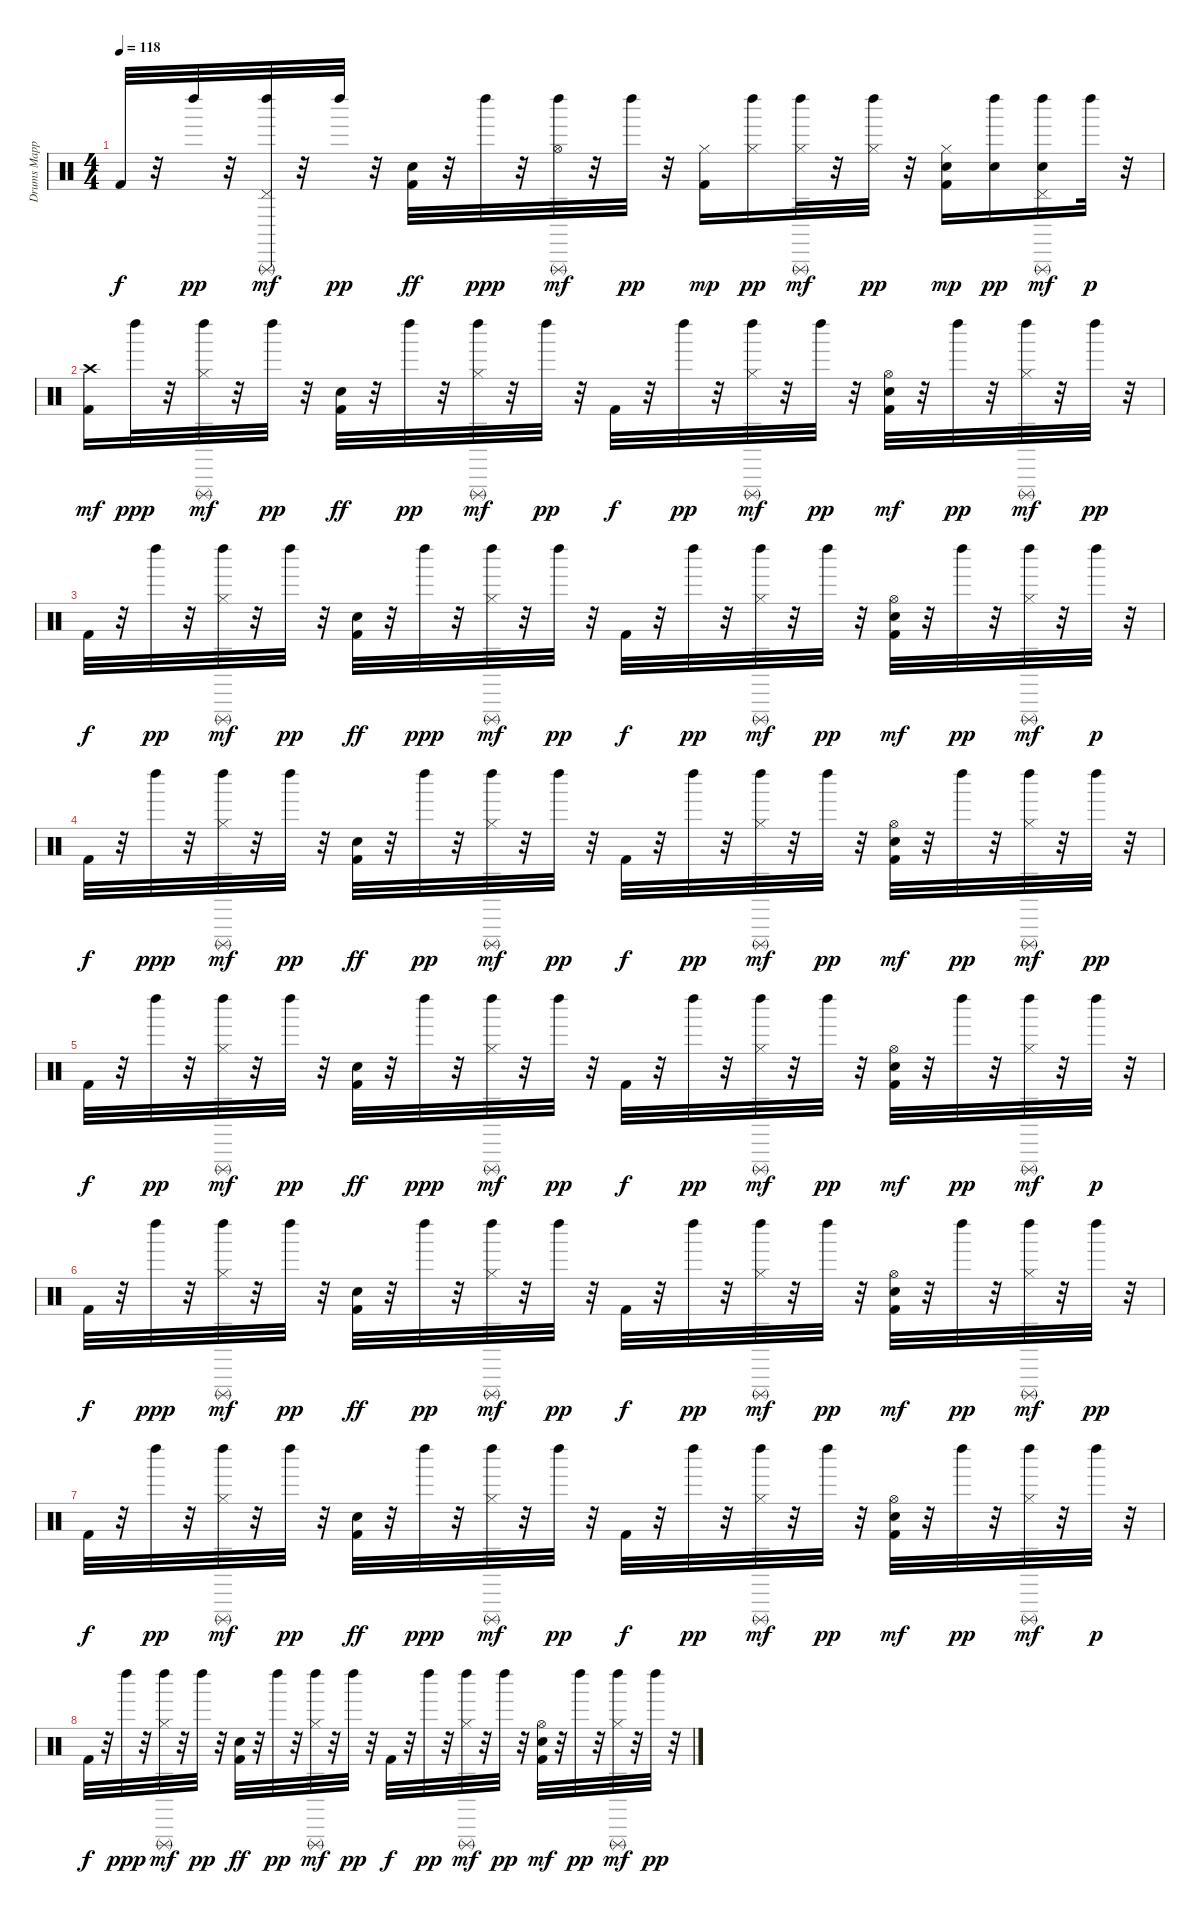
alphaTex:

\track ("Drums Mapped*merged" "Drums Mapp") {instrument percussion}
\staff {score}
\articulation defaults
\ts (4 4)
\tempo 118
\clef neutral
\ks c "Kick (hit) 2".32{dy f}
r.32 "Left Maraca (hit)".32{dy pp} r.32 ("Pedal Hi-Hat (hit)" "Left Maraca (hit)" "Triangle (rnute)").32{dy mf} r.32 "Left Maraca (hit)".32{dy pp} r.32 ("Kick (hit) 2" "Snare (hit) 2").32{dy ff} r.32 "Left Maraca (hit)".32{dy ppp} r.32 ("Hi-Hat (open)" "Left Maraca (hit)" "Triangle (rnute)").32{dy mf} r.32 "Left Maraca (hit)".32{dy pp} r.32 ("Kick (hit) 2" "Hi-Hat (closed)").16{dy mp} ("Hi-Hat (closed)" "Left Maraca (hit)").16{dy pp} ("Hi-Hat (closed)" "Left Maraca (hit)" "Triangle (rnute)").32{dy mf} r.32 ("Hi-Hat (closed)" "Left Maraca (hit)").32{dy pp} r.32 ("Kick (hit) 2" "Snare (hit) 2" "Hi-Hat (closed)").16{dy mp} ("Snare (hit) 2" "Left Maraca (hit)").16{dy pp} ("Snare (hit) 2" "Pedal Hi-Hat (hit)" "Left Maraca (hit)" "Triangle (rnute)").16{dy mf} "Left Maraca (hit)".32{dy p} r.32 |
("Kick (hit) 2" "Crash high (hit)").16{dy mf} "Left Maraca (hit)".32{dy ppp} r.32 ("Hi-Hat (closed)" "Left Maraca (hit)" "Triangle (rnute)").32{dy mf} r.32 "Left Maraca (hit)".32{dy pp} r.32 ("Kick (hit) 2" "Snare (hit) 2").32{dy ff} r.32 "Left Maraca (hit)".32{dy pp} r.32 ("Hi-Hat (closed)" "Left Maraca (hit)" "Triangle (rnute)").32{dy mf} r.32 "Left Maraca (hit)".32{dy pp} r.32 "Kick (hit) 2".32{dy f} r.32 "Left Maraca (hit)".32{dy pp} r.32 ("Hi-Hat (closed)" "Left Maraca (hit)" "Triangle (rnute)").32{dy mf} r.32 "Left Maraca (hit)".32{dy pp} r.32 ("Kick (hit) 2" "Snare (hit) 2" "Hi-Hat (open)").32{dy mf} r.32 "Left Maraca (hit)".32{dy pp} r.32 ("Hi-Hat (closed)" "Left Maraca (hit)" "Triangle (rnute)").32{dy mf} r.32 "Left Maraca (hit)".32{dy pp} r.32 |
"Kick (hit) 2".32{dy f} r.32 "Left Maraca (hit)".32{dy pp} r.32 ("Hi-Hat (closed)" "Left Maraca (hit)" "Triangle (rnute)").32{dy mf} r.32 "Left Maraca (hit)".32{dy pp} r.32 ("Kick (hit) 2" "Snare (hit) 2").32{dy ff} r.32 "Left Maraca (hit)".32{dy ppp} r.32 ("Hi-Hat (closed)" "Left Maraca (hit)" "Triangle (rnute)").32{dy mf} r.32 "Left Maraca (hit)".32{dy pp} r.32 "Kick (hit) 2".32{dy f} r.32 "Left Maraca (hit)".32{dy pp} r.32 ("Hi-Hat (closed)" "Left Maraca (hit)" "Triangle (rnute)").32{dy mf} r.32 "Left Maraca (hit)".32{dy pp} r.32 ("Kick (hit) 2" "Snare (hit) 2" "Hi-Hat (open)").32{dy mf} r.32 "Left Maraca (hit)".32{dy pp} r.32 ("Hi-Hat (closed)" "Left Maraca (hit)" "Triangle (rnute)").32{dy mf} r.32 "Left Maraca (hit)".32{dy p} r.32 |
"Kick (hit) 2".32{dy f} r.32 "Left Maraca (hit)".32{dy ppp} r.32 ("Hi-Hat (closed)" "Left Maraca (hit)" "Triangle (rnute)").32{dy mf} r.32 "Left Maraca (hit)".32{dy pp} r.32 ("Kick (hit) 2" "Snare (hit) 2").32{dy ff} r.32 "Left Maraca (hit)".32{dy pp} r.32 ("Hi-Hat (closed)" "Left Maraca (hit)" "Triangle (rnute)").32{dy mf} r.32 "Left Maraca (hit)".32{dy pp} r.32 "Kick (hit) 2".32{dy f} r.32 "Left Maraca (hit)".32{dy pp} r.32 ("Hi-Hat (closed)" "Left Maraca (hit)" "Triangle (rnute)").32{dy mf} r.32 "Left Maraca (hit)".32{dy pp} r.32 ("Kick (hit) 2" "Snare (hit) 2" "Hi-Hat (open)").32{dy mf} r.32 "Left Maraca (hit)".32{dy pp} r.32 ("Hi-Hat (closed)" "Left Maraca (hit)" "Triangle (rnute)").32{dy mf} r.32 "Left Maraca (hit)".32{dy pp} r.32 |
"Kick (hit) 2".32{dy f} r.32 "Left Maraca (hit)".32{dy pp} r.32 ("Hi-Hat (closed)" "Left Maraca (hit)" "Triangle (rnute)").32{dy mf} r.32 "Left Maraca (hit)".32{dy pp} r.32 ("Kick (hit) 2" "Snare (hit) 2").32{dy ff} r.32 "Left Maraca (hit)".32{dy ppp} r.32 ("Hi-Hat (closed)" "Left Maraca (hit)" "Triangle (rnute)").32{dy mf} r.32 "Left Maraca (hit)".32{dy pp} r.32 "Kick (hit) 2".32{dy f} r.32 "Left Maraca (hit)".32{dy pp} r.32 ("Hi-Hat (closed)" "Left Maraca (hit)" "Triangle (rnute)").32{dy mf} r.32 "Left Maraca (hit)".32{dy pp} r.32 ("Kick (hit) 2" "Snare (hit) 2" "Hi-Hat (open)").32{dy mf} r.32 "Left Maraca (hit)".32{dy pp} r.32 ("Hi-Hat (closed)" "Left Maraca (hit)" "Triangle (rnute)").32{dy mf} r.32 "Left Maraca (hit)".32{dy p} r.32 |
"Kick (hit) 2".32{dy f} r.32 "Left Maraca (hit)".32{dy ppp} r.32 ("Hi-Hat (closed)" "Left Maraca (hit)" "Triangle (rnute)").32{dy mf} r.32 "Left Maraca (hit)".32{dy pp} r.32 ("Kick (hit) 2" "Snare (hit) 2").32{dy ff} r.32 "Left Maraca (hit)".32{dy pp} r.32 ("Hi-Hat (closed)" "Left Maraca (hit)" "Triangle (rnute)").32{dy mf} r.32 "Left Maraca (hit)".32{dy pp} r.32 "Kick (hit) 2".32{dy f} r.32 "Left Maraca (hit)".32{dy pp} r.32 ("Hi-Hat (closed)" "Left Maraca (hit)" "Triangle (rnute)").32{dy mf} r.32 "Left Maraca (hit)".32{dy pp} r.32 ("Kick (hit) 2" "Snare (hit) 2" "Hi-Hat (open)").32{dy mf} r.32 "Left Maraca (hit)".32{dy pp} r.32 ("Hi-Hat (closed)" "Left Maraca (hit)" "Triangle (rnute)").32{dy mf} r.32 "Left Maraca (hit)".32{dy pp} r.32 |
"Kick (hit) 2".32{dy f} r.32 "Left Maraca (hit)".32{dy pp} r.32 ("Hi-Hat (closed)" "Left Maraca (hit)" "Triangle (rnute)").32{dy mf} r.32 "Left Maraca (hit)".32{dy pp} r.32 ("Kick (hit) 2" "Snare (hit) 2").32{dy ff} r.32 "Left Maraca (hit)".32{dy ppp} r.32 ("Hi-Hat (closed)" "Left Maraca (hit)" "Triangle (rnute)").32{dy mf} r.32 "Left Maraca (hit)".32{dy pp} r.32 "Kick (hit) 2".32{dy f} r.32 "Left Maraca (hit)".32{dy pp} r.32 ("Hi-Hat (closed)" "Left Maraca (hit)" "Triangle (rnute)").32{dy mf} r.32 "Left Maraca (hit)".32{dy pp} r.32 ("Kick (hit) 2" "Snare (hit) 2" "Hi-Hat (open)").32{dy mf} r.32 "Left Maraca (hit)".32{dy pp} r.32 ("Hi-Hat (closed)" "Left Maraca (hit)" "Triangle (rnute)").32{dy mf} r.32 "Left Maraca (hit)".32{dy p} r.32 |
"Kick (hit) 2".32{dy f} r.32 "Left Maraca (hit)".32{dy ppp} r.32 ("Hi-Hat (closed)" "Left Maraca (hit)" "Triangle (rnute)").32{dy mf} r.32 "Left Maraca (hit)".32{dy pp} r.32 ("Kick (hit) 2" "Snare (hit) 2").32{dy ff} r.32 "Left Maraca (hit)".32{dy pp} r.32 ("Hi-Hat (closed)" "Left Maraca (hit)" "Triangle (rnute)").32{dy mf} r.32 "Left Maraca (hit)".32{dy pp} r.32 "Kick (hit) 2".32{dy f} r.32 "Left Maraca (hit)".32{dy pp} r.32 ("Hi-Hat (closed)" "Left Maraca (hit)" "Triangle (rnute)").32{dy mf} r.32 "Left Maraca (hit)".32{dy pp} r.32 ("Kick (hit) 2" "Snare (hit) 2" "Hi-Hat (open)").32{dy mf} r.32 "Left Maraca (hit)".32{dy pp} r.32 ("Hi-Hat (closed)" "Left Maraca (hit)" "Triangle (rnute)").32{dy mf} r.32 "Left Maraca (hit)".32{dy pp} r.32
